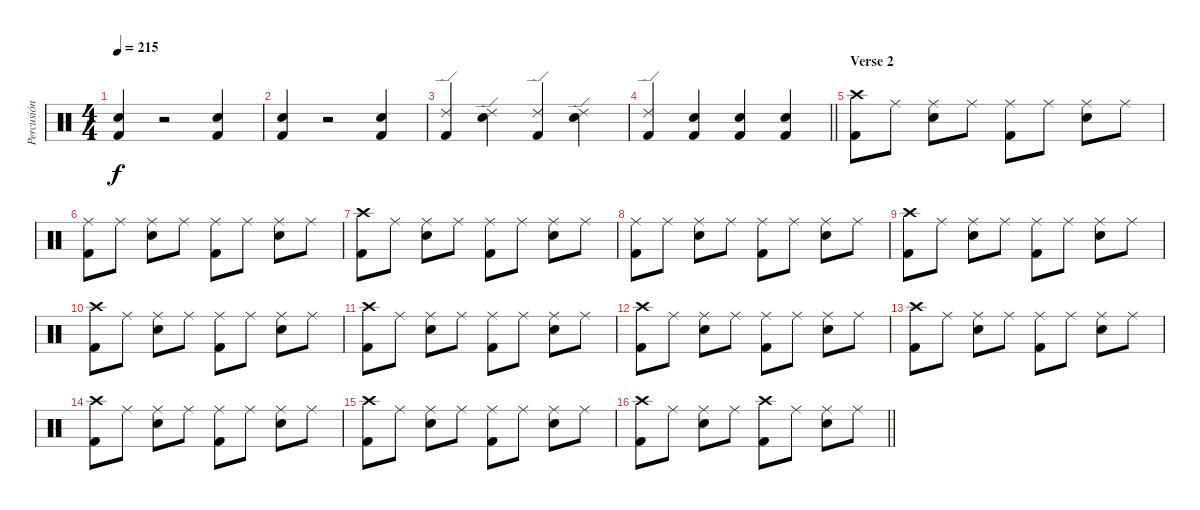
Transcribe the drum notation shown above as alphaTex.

\track ("Percusión" "Percusión") {instrument percussion}
\staff {score}
\articulation defaults
\ts (4 4)
\tempo 215
\clef neutral
\ks c
("Snare (hit) 2" "Kick (hit) 2").4{dy f} r.2 ("Snare (hit) 2" "Kick (hit) 2").4 |
("Snare (hit) 2" "Kick (hit) 2").4 r.2 ("Snare (hit) 2" "Kick (hit) 2").4 |
("Ride (edge) 2" "Kick (hit) 2").4 ("Ride (edge) 2" "Snare (hit) 2").4 ("Ride (edge) 2" "Kick (hit) 2").4 ("Ride (edge) 2" "Snare (hit) 2").4 |
\barLineRight lightlight
("Ride (edge) 2" "Kick (hit) 2").4 ("Snare (hit) 2" "Kick (hit) 2").4 ("Snare (hit) 2" "Kick (hit) 2").4 ("Snare (hit) 2" "Kick (hit) 2").4 |
\section ("" "Verse 2")
("Crash high (hit)" "Kick (hit) 2").8 "Ride (middle)".8 ("Ride (middle)" "Snare (hit) 2").8 "Ride (middle)".8 ("Ride (middle)" "Kick (hit) 2").8 "Ride (middle)".8 ("Ride (middle)" "Snare (hit) 2").8 "Ride (middle)".8 |
("Ride (middle)" "Kick (hit) 2").8 "Ride (middle)".8 ("Ride (middle)" "Snare (hit) 2").8 "Ride (middle)".8 ("Ride (middle)" "Kick (hit) 2").8 "Ride (middle)".8 ("Ride (middle)" "Snare (hit) 2").8 "Ride (middle)".8 |
("Crash high (hit)" "Kick (hit) 2").8 "Ride (middle)".8 ("Ride (middle)" "Snare (hit) 2").8 "Ride (middle)".8 ("Ride (middle)" "Kick (hit) 2").8 "Ride (middle)".8 ("Ride (middle)" "Snare (hit) 2").8 "Ride (middle)".8 |
("Ride (middle)" "Kick (hit) 2").8 "Ride (middle)".8 ("Ride (middle)" "Snare (hit) 2").8 "Ride (middle)".8 ("Ride (middle)" "Kick (hit) 2").8 "Ride (middle)".8 ("Ride (middle)" "Snare (hit) 2").8 "Ride (middle)".8 |
("Crash high (hit)" "Kick (hit) 2").8 "Ride (middle)".8 ("Ride (middle)" "Snare (hit) 2").8 "Ride (middle)".8 ("Ride (middle)" "Kick (hit) 2").8 "Ride (middle)".8 ("Ride (middle)" "Snare (hit) 2").8 "Ride (middle)".8 |
("Crash high (hit)" "Kick (hit) 2").8 "Ride (middle)".8 ("Ride (middle)" "Snare (hit) 2").8 "Ride (middle)".8 ("Ride (middle)" "Kick (hit) 2").8 "Ride (middle)".8 ("Ride (middle)" "Snare (hit) 2").8 "Ride (middle)".8 |
("Crash high (hit)" "Kick (hit) 2").8 "Ride (middle)".8 ("Ride (middle)" "Snare (hit) 2").8 "Ride (middle)".8 ("Ride (middle)" "Kick (hit) 2").8 "Ride (middle)".8 ("Ride (middle)" "Snare (hit) 2").8 "Ride (middle)".8 |
("Crash high (hit)" "Kick (hit) 2").8 "Ride (middle)".8 ("Ride (middle)" "Snare (hit) 2").8 "Ride (middle)".8 ("Ride (middle)" "Kick (hit) 2").8 "Ride (middle)".8 ("Ride (middle)" "Snare (hit) 2").8 "Ride (middle)".8 |
("Crash high (hit)" "Kick (hit) 2").8 "Ride (middle)".8 ("Ride (middle)" "Snare (hit) 2").8 "Ride (middle)".8 ("Ride (middle)" "Kick (hit) 2").8 "Ride (middle)".8 ("Ride (middle)" "Snare (hit) 2").8 "Ride (middle)".8 |
("Crash high (hit)" "Kick (hit) 2").8 "Ride (middle)".8 ("Ride (middle)" "Snare (hit) 2").8 "Ride (middle)".8 ("Ride (middle)" "Kick (hit) 2").8 "Ride (middle)".8 ("Ride (middle)" "Snare (hit) 2").8 "Ride (middle)".8 |
("Crash high (hit)" "Kick (hit) 2").8 "Ride (middle)".8 ("Ride (middle)" "Snare (hit) 2").8 "Ride (middle)".8 ("Ride (middle)" "Kick (hit) 2").8 "Ride (middle)".8 ("Ride (middle)" "Snare (hit) 2").8 "Ride (middle)".8 |
\barLineRight lightlight
("Crash high (hit)" "Kick (hit) 2").8 "Ride (middle)".8 ("Ride (middle)" "Snare (hit) 2").8 "Ride (middle)".8 ("Crash high (hit)" "Kick (hit) 2").8 "Ride (middle)".8 ("Ride (middle)" "Snare (hit) 2").8 "Ride (middle)".8
